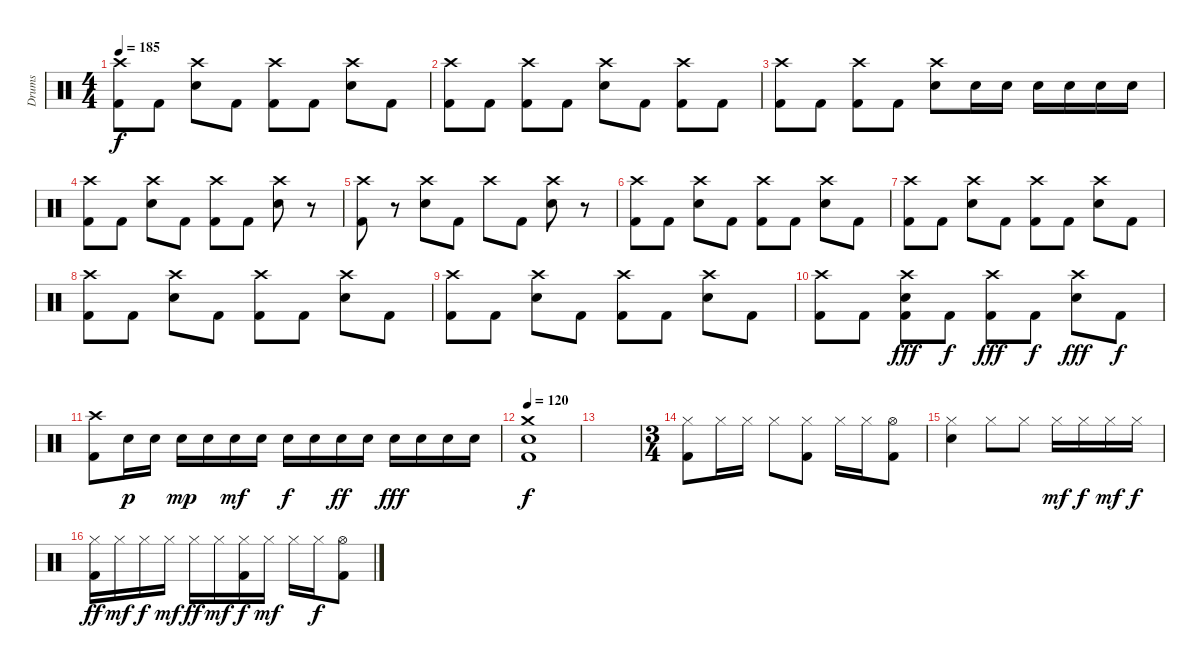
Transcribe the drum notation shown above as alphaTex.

\track ("Drums" "Drums") {instrument percussion}
\staff {score}
\articulation defaults
\ts (4 4)
\tempo 185
\clef neutral
\ks c
("Crash high (hit)" "Kick (hit) 2").8{dy f} "Kick (hit) 2".8 ("Crash high (hit)" "Electric Snare (hit)").8 "Kick (hit) 2".8 ("Crash high (hit)" "Kick (hit) 2").8 "Kick (hit) 2".8 ("Crash high (hit)" "Electric Snare (hit)").8 "Kick (hit) 2".8 |
("Crash high (hit)" "Kick (hit) 2").8 "Kick (hit) 2".8 ("Crash high (hit)" "Kick (hit) 2").8 "Kick (hit) 2".8 ("Crash high (hit)" "Electric Snare (hit)").8 "Kick (hit) 2".8 ("Crash high (hit)" "Kick (hit) 2").8 "Kick (hit) 2".8 |
("Crash high (hit)" "Kick (hit) 2").8 "Kick (hit) 2".8 ("Crash high (hit)" "Kick (hit) 2").8 "Kick (hit) 2".8 ("Crash high (hit)" "Electric Snare (hit)").8 "Electric Snare (hit)".16 "Electric Snare (hit)".16 "Electric Snare (hit)".16 "Electric Snare (hit)".16 "Electric Snare (hit)".16 "Electric Snare (hit)".16 |
("Crash high (hit)" "Kick (hit) 2").8 "Kick (hit) 2".8 ("Crash high (hit)" "Electric Snare (hit)").8 "Kick (hit) 2".8 ("Crash high (hit)" "Kick (hit) 2").8 "Kick (hit) 2".8 ("Crash high (hit)" "Electric Snare (hit)").8 r.8 |
("Crash high (hit)" "Kick (hit) 2").8 r.8 ("Crash high (hit)" "Electric Snare (hit)").8 "Kick (hit) 2".8 "Crash high (hit)".8 "Kick (hit) 2".8 ("Crash high (hit)" "Electric Snare (hit)").8 r.8 |
("Crash high (hit)" "Kick (hit) 2").8 "Kick (hit) 2".8 ("Crash high (hit)" "Electric Snare (hit)").8 "Kick (hit) 2".8 ("Crash high (hit)" "Kick (hit) 2").8 "Kick (hit) 2".8 ("Crash high (hit)" "Electric Snare (hit)").8 "Kick (hit) 2".8 |
("Crash high (hit)" "Kick (hit) 2").8 "Kick (hit) 2".8 ("Crash high (hit)" "Electric Snare (hit)").8 "Kick (hit) 2".8 ("Crash high (hit)" "Kick (hit) 2").8 "Kick (hit) 2".8 ("Crash high (hit)" "Electric Snare (hit)").8 "Kick (hit) 2".8 |
("Crash high (hit)" "Kick (hit) 2").8 "Kick (hit) 2".8 ("Crash high (hit)" "Electric Snare (hit)").8 "Kick (hit) 2".8 ("Crash high (hit)" "Kick (hit) 2").8 "Kick (hit) 2".8 ("Crash high (hit)" "Electric Snare (hit)").8 "Kick (hit) 2".8 |
("Crash high (hit)" "Kick (hit) 2").8 "Kick (hit) 2".8 ("Crash high (hit)" "Electric Snare (hit)").8 "Kick (hit) 2".8 ("Crash high (hit)" "Kick (hit) 2").8 "Kick (hit) 2".8 ("Crash high (hit)" "Electric Snare (hit)").8 "Kick (hit) 2".8 |
("Crash high (hit)" "Kick (hit) 2").8 "Kick (hit) 2".8 ("Crash high (hit)" "Electric Snare (hit)" "Kick (hit) 2").8{dy fff} "Kick (hit) 2".8{dy f} ("Crash high (hit)" "Kick (hit) 2").8{dy fff} "Kick (hit) 2".8{dy f} ("Crash high (hit)" "Electric Snare (hit)").8{dy fff} "Kick (hit) 2".8{dy f} |
("Crash high (hit)" "Kick (hit) 2").8 "Electric Snare (hit)".16{dy p} "Electric Snare (hit)".16 "Electric Snare (hit)".16{dy mp} "Electric Snare (hit)".16 "Electric Snare (hit)".16{dy mf} "Electric Snare (hit)".16 "Electric Snare (hit)".16{dy f} "Electric Snare (hit)".16 "Electric Snare (hit)".16{dy ff} "Electric Snare (hit)".16 "Electric Snare (hit)".16{dy fff} "Electric Snare (hit)".16 "Electric Snare (hit)".16 "Electric Snare (hit)".16 |
\tempo 120
("Crash medium (hit)" "Electric Snare (hit)" "Kick (hit) 2").1{dy f} |
|
\ts (3 4)
("Hi-Hat (closed)" "Kick (hit) 2").8 "Hi-Hat (closed)".16 "Hi-Hat (closed)".16 "Hi-Hat (closed)".8 ("Hi-Hat (closed)" "Kick (hit) 2").8 "Hi-Hat (closed)".16 "Hi-Hat (closed)".16 ("Hi-Hat (open)" "Kick (hit) 2").8 |
("Hi-Hat (closed)" "Electric Snare (hit)").4 "Hi-Hat (closed)".8 "Hi-Hat (closed)".8 "Hi-Hat (closed)".16{dy mf} "Hi-Hat (closed)".16{dy f} "Hi-Hat (closed)".16{dy mf} "Hi-Hat (closed)".16{dy f} |
("Hi-Hat (closed)" "Kick (hit) 2").16{dy ff} "Hi-Hat (closed)".16{dy mf} "Hi-Hat (closed)".16{dy f} "Hi-Hat (closed)".16{dy mf} "Hi-Hat (closed)".16{dy ff} "Hi-Hat (closed)".16{dy mf} ("Hi-Hat (closed)" "Kick (hit) 2").16{dy f} "Hi-Hat (closed)".16{dy mf} "Hi-Hat (closed)".16 "Hi-Hat (closed)".16{dy f} ("Hi-Hat (open)" "Kick (hit) 2").8
